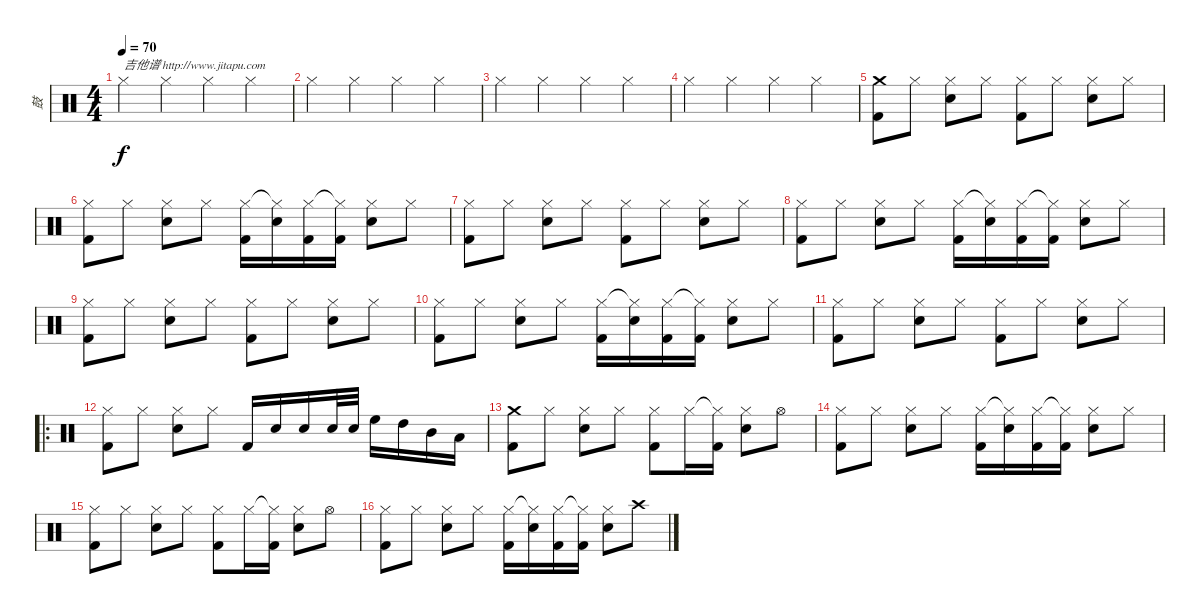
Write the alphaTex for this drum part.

\track ("鼓" "鼓") {instrument percussion}
\staff {score}
\articulation defaults
\ts (4 4)
\tempo 70
\clef neutral
\ks c "Hi-Hat (closed)".4{txt "吉他谱 http://www.jitapu.com" dy f} "Hi-Hat (closed)".4 "Hi-Hat (closed)".4 "Hi-Hat (closed)".4
|
"Hi-Hat (closed)".4 "Hi-Hat (closed)".4 "Hi-Hat (closed)".4 "Hi-Hat (closed)".4 |
"Hi-Hat (closed)".4 "Hi-Hat (closed)".4 "Hi-Hat (closed)".4 "Hi-Hat (closed)".4 |
"Hi-Hat (closed)".4 "Hi-Hat (closed)".4 "Hi-Hat (closed)".4 "Hi-Hat (closed)".4 |
("Crash medium (hit)" "Kick (hit) 2").8 "Hi-Hat (closed)".8 ("Hi-Hat (closed)" "Electric Snare (hit)").8 "Hi-Hat (closed)".8 ("Hi-Hat (closed)" "Kick (hit) 2").8 "Hi-Hat (closed)".8 ("Hi-Hat (closed)" "Electric Snare (hit)").8 "Hi-Hat (closed)".8 |
("Hi-Hat (closed)" "Kick (hit) 2").8 "Hi-Hat (closed)".8 ("Hi-Hat (closed)" "Electric Snare (hit)").8 "Hi-Hat (closed)".8 ("Hi-Hat (closed)" "Kick (hit) 2").16 ("Hi-Hat (closed)"{t} "Electric Snare (hit)").16 ("Hi-Hat (closed)" "Kick (hit) 2").16 ("Hi-Hat (closed)"{t} "Kick (hit) 2").16 ("Hi-Hat (closed)" "Electric Snare (hit)").8 "Hi-Hat (closed)".8 |
("Hi-Hat (closed)" "Kick (hit) 2").8 "Hi-Hat (closed)".8 ("Hi-Hat (closed)" "Electric Snare (hit)").8 "Hi-Hat (closed)".8 ("Hi-Hat (closed)" "Kick (hit) 2").8 "Hi-Hat (closed)".8 ("Hi-Hat (closed)" "Electric Snare (hit)").8 "Hi-Hat (closed)".8 |
("Hi-Hat (closed)" "Kick (hit) 2").8 "Hi-Hat (closed)".8 ("Hi-Hat (closed)" "Electric Snare (hit)").8 "Hi-Hat (closed)".8 ("Hi-Hat (closed)" "Kick (hit) 2").16 ("Hi-Hat (closed)"{t} "Electric Snare (hit)").16 ("Hi-Hat (closed)" "Kick (hit) 2").16 ("Hi-Hat (closed)"{t} "Kick (hit) 2").16 ("Hi-Hat (closed)" "Electric Snare (hit)").8 "Hi-Hat (closed)".8 |
("Hi-Hat (closed)" "Kick (hit) 2").8 "Hi-Hat (closed)".8 ("Hi-Hat (closed)" "Electric Snare (hit)").8 "Hi-Hat (closed)".8 ("Hi-Hat (closed)" "Kick (hit) 2").8 "Hi-Hat (closed)".8 ("Hi-Hat (closed)" "Electric Snare (hit)").8 "Hi-Hat (closed)".8 |
("Hi-Hat (closed)" "Kick (hit) 2").8 "Hi-Hat (closed)".8 ("Hi-Hat (closed)" "Electric Snare (hit)").8 "Hi-Hat (closed)".8 ("Hi-Hat (closed)" "Kick (hit) 2").16 ("Hi-Hat (closed)"{t} "Electric Snare (hit)").16 ("Hi-Hat (closed)" "Kick (hit) 2").16 ("Hi-Hat (closed)"{t} "Kick (hit) 2").16 ("Hi-Hat (closed)" "Electric Snare (hit)").8 "Hi-Hat (closed)".8 |
("Hi-Hat (closed)" "Kick (hit) 2").8 "Hi-Hat (closed)".8 ("Hi-Hat (closed)" "Electric Snare (hit)").8 "Hi-Hat (closed)".8 ("Hi-Hat (closed)" "Kick (hit) 2").8 "Hi-Hat (closed)".8 ("Hi-Hat (closed)" "Electric Snare (hit)").8 "Hi-Hat (closed)".8 |
\ro
("Hi-Hat (closed)" "Kick (hit) 2").8 "Hi-Hat (closed)".8 ("Hi-Hat (closed)" "Electric Snare (hit)").8 "Hi-Hat (closed)".8 "Kick (hit) 2".16 "Electric Snare (hit)".16 "Electric Snare (hit)".16 "Electric Snare (hit)".32 "Electric Snare (hit)".32 "High Floor Tom (hit)".16 "High Tom (hit)".16 "Mid Tom (hit)".16 "Low Tom (hit)".16 |
("Crash medium (hit)" "Kick (hit) 2").8 "Hi-Hat (closed)".8 ("Hi-Hat (closed)" "Electric Snare (hit)").8 "Hi-Hat (closed)".8 ("Hi-Hat (closed)" "Kick (hit) 2").8 "Hi-Hat (closed)".16 ("Hi-Hat (closed)"{t} "Kick (hit) 2").16 ("Hi-Hat (closed)" "Electric Snare (hit)").8 "Hi-Hat (open)".8 |
("Hi-Hat (closed)" "Kick (hit) 2").8 "Hi-Hat (closed)".8 ("Hi-Hat (closed)" "Electric Snare (hit)").8 "Hi-Hat (closed)".8 ("Hi-Hat (closed)" "Kick (hit) 2").16 ("Hi-Hat (closed)"{t} "Electric Snare (hit)").16 ("Hi-Hat (closed)" "Kick (hit) 2").16 ("Hi-Hat (closed)"{t} "Kick (hit) 2").16 ("Hi-Hat (closed)" "Electric Snare (hit)").8 "Hi-Hat (closed)".8 |
("Hi-Hat (closed)" "Kick (hit) 2").8 "Hi-Hat (closed)".8 ("Hi-Hat (closed)" "Electric Snare (hit)").8 "Hi-Hat (closed)".8 ("Hi-Hat (closed)" "Kick (hit) 2").8 "Hi-Hat (closed)".16 ("Hi-Hat (closed)"{t} "Kick (hit) 2").16 ("Hi-Hat (closed)" "Electric Snare (hit)").8 "Hi-Hat (open)".8 |
("Hi-Hat (closed)" "Kick (hit) 2").8 "Hi-Hat (closed)".8 ("Hi-Hat (closed)" "Electric Snare (hit)").8 "Hi-Hat (closed)".8 ("Hi-Hat (closed)" "Kick (hit) 2").16 ("Hi-Hat (closed)"{t} "Electric Snare (hit)").16 ("Hi-Hat (closed)" "Kick (hit) 2").16 ("Hi-Hat (closed)"{t} "Kick (hit) 2").16 ("Hi-Hat (closed)" "Electric Snare (hit)").8 "Crash high (hit)".8
